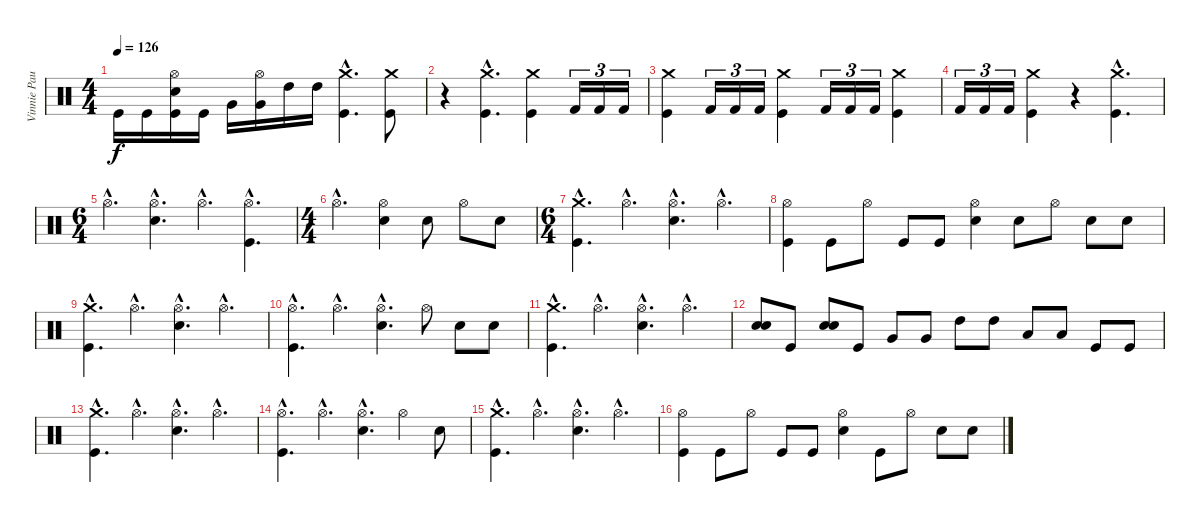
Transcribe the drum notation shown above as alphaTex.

\track ("Vinnie Paul" "Vinnie Pau") {instrument percussion}
\staff {score}
\articulation defaults
\ts (4 4)
\tempo 126
\clef neutral
\ks c "Kick (hit)".16{dy f} "Kick (hit)".16
("Kick (hit)" "Snare (hit) 2" "Hi-Hat (open)").16 "Kick (hit)".16 "Very Low Tom (hit)".16 ("Very Low Tom (hit)" "Hi-Hat (open)").16 "High Tom (hit)".16 "High Tom (hit)".16 ("Kick (hit)"{hac} "Crash medium (hit)"{hac}).4{d} ("Kick (hit)" "Crash medium (hit)").8 |
r.4 ("Kick (hit)"{hac} "Crash medium (hit)"{hac}).4{d} ("Kick (hit)" "Crash medium (hit)").4 "Kick (hit) 2".16{tu (3 2)} "Kick (hit) 2".16{tu (3 2)} "Kick (hit) 2".16{tu (3 2)} |
("Kick (hit)" "Crash medium (hit)").4 "Kick (hit) 2".16{tu (3 2)} "Kick (hit) 2".16{tu (3 2)} "Kick (hit) 2".16{tu (3 2)} ("Kick (hit)" "Crash medium (hit)").4 "Kick (hit) 2".16{tu (3 2)} "Kick (hit) 2".16{tu (3 2)} "Kick (hit) 2".16{tu (3 2)} ("Kick (hit)" "Crash medium (hit)").4 |
"Kick (hit) 2".16{tu (3 2)} "Kick (hit) 2".16{tu (3 2)} "Kick (hit) 2".16{tu (3 2)} ("Kick (hit)" "Crash medium (hit)").4 r.4 ("Kick (hit)"{hac} "Crash medium (hit)"{hac}).4{d} |
\ts (6 4)
"Hi-Hat (open)"{hac}.4{d} ("Snare (hit) 2"{hac} "Hi-Hat (open)"{hac}).4{d} "Hi-Hat (open)"{hac}.4{d} ("Kick (hit)"{hac} "Hi-Hat (open)"{hac}).4{d} |
\ts (4 4)
"Hi-Hat (open)"{hac}.4{d} ("Snare (hit) 2" "Hi-Hat (open)").4 "Snare (hit) 2".8 "Hi-Hat (open)".8 "Snare (hit) 2".8 |
\ts (6 4)
("Kick (hit)"{hac} "Crash medium (hit)"{hac}).4{d} "Hi-Hat (open)"{hac}.4{d} ("Snare (hit) 2"{hac} "Hi-Hat (open)"{hac}).4{d} "Hi-Hat (open)"{hac}.4{d} |
("Kick (hit)" "Hi-Hat (open)").4 "Kick (hit)".8 "Hi-Hat (open)".8 "Kick (hit)".8 "Kick (hit)".8 ("Snare (hit) 2" "Hi-Hat (open)").4 "Snare (hit) 2".8 "Hi-Hat (open)".8 "Snare (hit) 2".8 "Snare (hit) 2".8 |
("Kick (hit)"{hac} "Crash medium (hit)"{hac}).4{d} "Hi-Hat (open)"{hac}.4{d} ("Snare (hit) 2"{hac} "Hi-Hat (open)"{hac}).4{d} "Hi-Hat (open)"{hac}.4{d} |
("Kick (hit)"{hac} "Hi-Hat (open)"{hac}).4{d} "Hi-Hat (open)"{hac}.4{d} ("Snare (hit) 2"{hac} "Hi-Hat (open)"{hac}).4{d} "Hi-Hat (open)".8 "Snare (hit) 2".8 "Snare (hit) 2".8 |
("Kick (hit)"{hac} "Crash medium (hit)"{hac}).4{d} "Hi-Hat (open)"{hac}.4{d} ("Snare (hit) 2"{hac} "Hi-Hat (open)"{hac}).4{d} "Hi-Hat (open)"{hac}.4{d} |
("Snare (hit) 2" "Snare (hit) 2").8 "Kick (hit)".8 ("Snare (hit) 2" "Snare (hit) 2").8 "Kick (hit)".8 "Very Low Tom (hit)".8 "Very Low Tom (hit)".8 "High Tom (hit)".8 "High Tom (hit)".8 "Low Floor Tom (hit)".8 "Low Floor Tom (hit)".8 "Kick (hit)".8 "Kick (hit)".8 |
("Kick (hit)"{hac} "Crash medium (hit)"{hac}).4{d} "Hi-Hat (open)"{hac}.4{d} ("Snare (hit) 2"{hac} "Hi-Hat (open)"{hac}).4{d} "Hi-Hat (open)"{hac}.4{d} |
("Kick (hit)"{hac} "Hi-Hat (open)"{hac}).4{d} "Hi-Hat (open)"{hac}.4{d} ("Snare (hit) 2"{hac} "Hi-Hat (open)"{hac}).4{d} "Hi-Hat (open)".4 "Snare (hit) 2".8 |
("Kick (hit)"{hac} "Crash medium (hit)"{hac}).4{d} "Hi-Hat (open)"{hac}.4{d} ("Snare (hit) 2"{hac} "Hi-Hat (open)"{hac}).4{d} "Hi-Hat (open)"{hac}.4{d} |
("Kick (hit)" "Hi-Hat (open)").4 "Kick (hit)".8 "Hi-Hat (open)".8 "Kick (hit)".8 "Kick (hit)".8 ("Snare (hit) 2" "Hi-Hat (open)").4 "Kick (hit)".8 "Hi-Hat (open)".8 "Snare (hit) 2".8 "Snare (hit) 2".8
